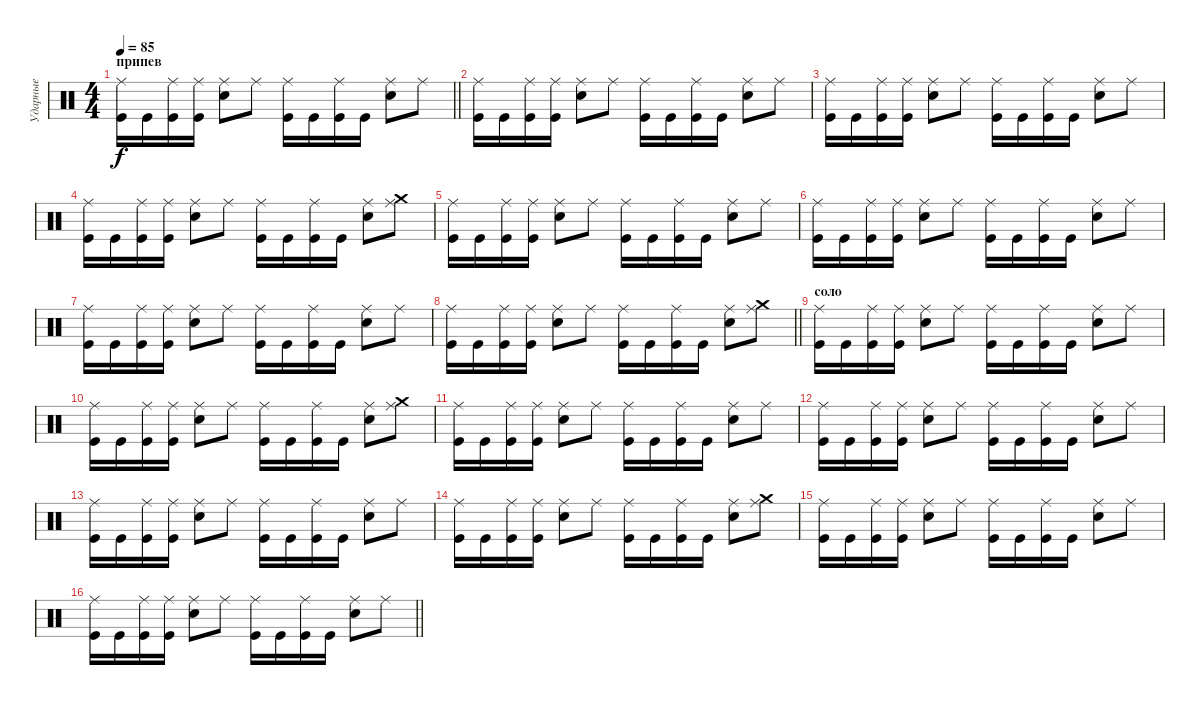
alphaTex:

\track ("Ударные" "Ударные") {instrument percussion}
\staff {score}
\articulation defaults
\ts (4 4)
\section ("" "припев")
\tempo 85
\clef neutral
\barLineRight lightlight
\ks c
("Ride (middle)" "Kick (hit)").16{dy f} "Kick (hit)".16 ("Ride (middle)" "Kick (hit)").16 ("Ride (middle)" "Kick (hit)").16 ("Ride (middle)" "Electric Snare (hit)").8 "Ride (middle)".8 ("Ride (middle)" "Kick (hit)").16 "Kick (hit)".16 ("Ride (middle)" "Kick (hit)").16 "Kick (hit)".16 ("Ride (middle)" "Electric Snare (hit)").8 "Ride (middle)".8 |
\section ("" "")
("Ride (middle)" "Kick (hit)").16 "Kick (hit)".16 ("Ride (middle)" "Kick (hit)").16 ("Ride (middle)" "Kick (hit)").16 ("Ride (middle)" "Electric Snare (hit)").8 "Ride (middle)".8 ("Ride (middle)" "Kick (hit)").16 "Kick (hit)".16 ("Ride (middle)" "Kick (hit)").16 "Kick (hit)".16 ("Ride (middle)" "Electric Snare (hit)").8 "Ride (middle)".8 |
("Ride (middle)" "Kick (hit)").16 "Kick (hit)".16 ("Ride (middle)" "Kick (hit)").16 ("Ride (middle)" "Kick (hit)").16 ("Ride (middle)" "Electric Snare (hit)").8 "Ride (middle)".8 ("Ride (middle)" "Kick (hit)").16 "Kick (hit)".16 ("Ride (middle)" "Kick (hit)").16 "Kick (hit)".16 ("Ride (middle)" "Electric Snare (hit)").8 "Ride (middle)".8 |
("Ride (middle)" "Kick (hit)").16 "Kick (hit)".16 ("Ride (middle)" "Kick (hit)").16 ("Ride (middle)" "Kick (hit)").16 ("Ride (middle)" "Electric Snare (hit)").8 "Ride (middle)".8 ("Ride (middle)" "Kick (hit)").16 "Kick (hit)".16 ("Ride (middle)" "Kick (hit)").16 "Kick (hit)".16 ("Ride (middle)" "Electric Snare (hit)").8 ("Ride (middle)" "Crash medium (hit)").8 |
("Ride (middle)" "Kick (hit)").16 "Kick (hit)".16 ("Ride (middle)" "Kick (hit)").16 ("Ride (middle)" "Kick (hit)").16 ("Ride (middle)" "Electric Snare (hit)").8 "Ride (middle)".8 ("Ride (middle)" "Kick (hit)").16 "Kick (hit)".16 ("Ride (middle)" "Kick (hit)").16 "Kick (hit)".16 ("Ride (middle)" "Electric Snare (hit)").8 "Ride (middle)".8 |
("Ride (middle)" "Kick (hit)").16 "Kick (hit)".16 ("Ride (middle)" "Kick (hit)").16 ("Ride (middle)" "Kick (hit)").16 ("Ride (middle)" "Electric Snare (hit)").8 "Ride (middle)".8 ("Ride (middle)" "Kick (hit)").16 "Kick (hit)".16 ("Ride (middle)" "Kick (hit)").16 "Kick (hit)".16 ("Ride (middle)" "Electric Snare (hit)").8 "Ride (middle)".8 |
("Ride (middle)" "Kick (hit)").16 "Kick (hit)".16 ("Ride (middle)" "Kick (hit)").16 ("Ride (middle)" "Kick (hit)").16 ("Ride (middle)" "Electric Snare (hit)").8 "Ride (middle)".8 ("Ride (middle)" "Kick (hit)").16 "Kick (hit)".16 ("Ride (middle)" "Kick (hit)").16 "Kick (hit)".16 ("Ride (middle)" "Electric Snare (hit)").8 "Ride (middle)".8 |
\barLineRight lightlight
("Ride (middle)" "Kick (hit)").16 "Kick (hit)".16 ("Ride (middle)" "Kick (hit)").16 ("Ride (middle)" "Kick (hit)").16 ("Ride (middle)" "Electric Snare (hit)").8 "Ride (middle)".8 ("Ride (middle)" "Kick (hit)").16 "Kick (hit)".16 ("Ride (middle)" "Kick (hit)").16 "Kick (hit)".16 ("Ride (middle)" "Electric Snare (hit)").8 ("Ride (middle)" "Crash medium (hit)").8 |
\section ("" "соло")
("Ride (middle)" "Kick (hit)").16 "Kick (hit)".16 ("Ride (middle)" "Kick (hit)").16 ("Ride (middle)" "Kick (hit)").16 ("Ride (middle)" "Electric Snare (hit)").8 "Ride (middle)".8 ("Ride (middle)" "Kick (hit)").16 "Kick (hit)".16 ("Ride (middle)" "Kick (hit)").16 "Kick (hit)".16 ("Ride (middle)" "Electric Snare (hit)").8 "Ride (middle)".8 |
("Ride (middle)" "Kick (hit)").16 "Kick (hit)".16 ("Ride (middle)" "Kick (hit)").16 ("Ride (middle)" "Kick (hit)").16 ("Ride (middle)" "Electric Snare (hit)").8 "Ride (middle)".8 ("Ride (middle)" "Kick (hit)").16 "Kick (hit)".16 ("Ride (middle)" "Kick (hit)").16 "Kick (hit)".16 ("Ride (middle)" "Electric Snare (hit)").8 ("Ride (middle)" "Crash medium (hit)").8 |
("Ride (middle)" "Kick (hit)").16 "Kick (hit)".16 ("Ride (middle)" "Kick (hit)").16 ("Ride (middle)" "Kick (hit)").16 ("Ride (middle)" "Electric Snare (hit)").8 "Ride (middle)".8 ("Ride (middle)" "Kick (hit)").16 "Kick (hit)".16 ("Ride (middle)" "Kick (hit)").16 "Kick (hit)".16 ("Ride (middle)" "Electric Snare (hit)").8 "Ride (middle)".8 |
("Ride (middle)" "Kick (hit)").16 "Kick (hit)".16 ("Ride (middle)" "Kick (hit)").16 ("Ride (middle)" "Kick (hit)").16 ("Ride (middle)" "Electric Snare (hit)").8 "Ride (middle)".8 ("Ride (middle)" "Kick (hit)").16 "Kick (hit)".16 ("Ride (middle)" "Kick (hit)").16 "Kick (hit)".16 ("Ride (middle)" "Electric Snare (hit)").8 "Ride (middle)".8 |
("Ride (middle)" "Kick (hit)").16 "Kick (hit)".16 ("Ride (middle)" "Kick (hit)").16 ("Ride (middle)" "Kick (hit)").16 ("Ride (middle)" "Electric Snare (hit)").8 "Ride (middle)".8 ("Ride (middle)" "Kick (hit)").16 "Kick (hit)".16 ("Ride (middle)" "Kick (hit)").16 "Kick (hit)".16 ("Ride (middle)" "Electric Snare (hit)").8 "Ride (middle)".8 |
("Ride (middle)" "Kick (hit)").16 "Kick (hit)".16 ("Ride (middle)" "Kick (hit)").16 ("Ride (middle)" "Kick (hit)").16 ("Ride (middle)" "Electric Snare (hit)").8 "Ride (middle)".8 ("Ride (middle)" "Kick (hit)").16 "Kick (hit)".16 ("Ride (middle)" "Kick (hit)").16 "Kick (hit)".16 ("Ride (middle)" "Electric Snare (hit)").8 ("Ride (middle)" "Crash medium (hit)").8 |
("Ride (middle)" "Kick (hit)").16 "Kick (hit)".16 ("Ride (middle)" "Kick (hit)").16 ("Ride (middle)" "Kick (hit)").16 ("Ride (middle)" "Electric Snare (hit)").8 "Ride (middle)".8 ("Ride (middle)" "Kick (hit)").16 "Kick (hit)".16 ("Ride (middle)" "Kick (hit)").16 "Kick (hit)".16 ("Ride (middle)" "Electric Snare (hit)").8 "Ride (middle)".8 |
\barLineRight lightlight
("Ride (middle)" "Kick (hit)").16 "Kick (hit)".16 ("Ride (middle)" "Kick (hit)").16 ("Ride (middle)" "Kick (hit)").16 ("Ride (middle)" "Electric Snare (hit)").8 "Ride (middle)".8 ("Ride (middle)" "Kick (hit)").16 "Kick (hit)".16 ("Ride (middle)" "Kick (hit)").16 "Kick (hit)".16 ("Ride (middle)" "Electric Snare (hit)").8 "Ride (middle)".8
